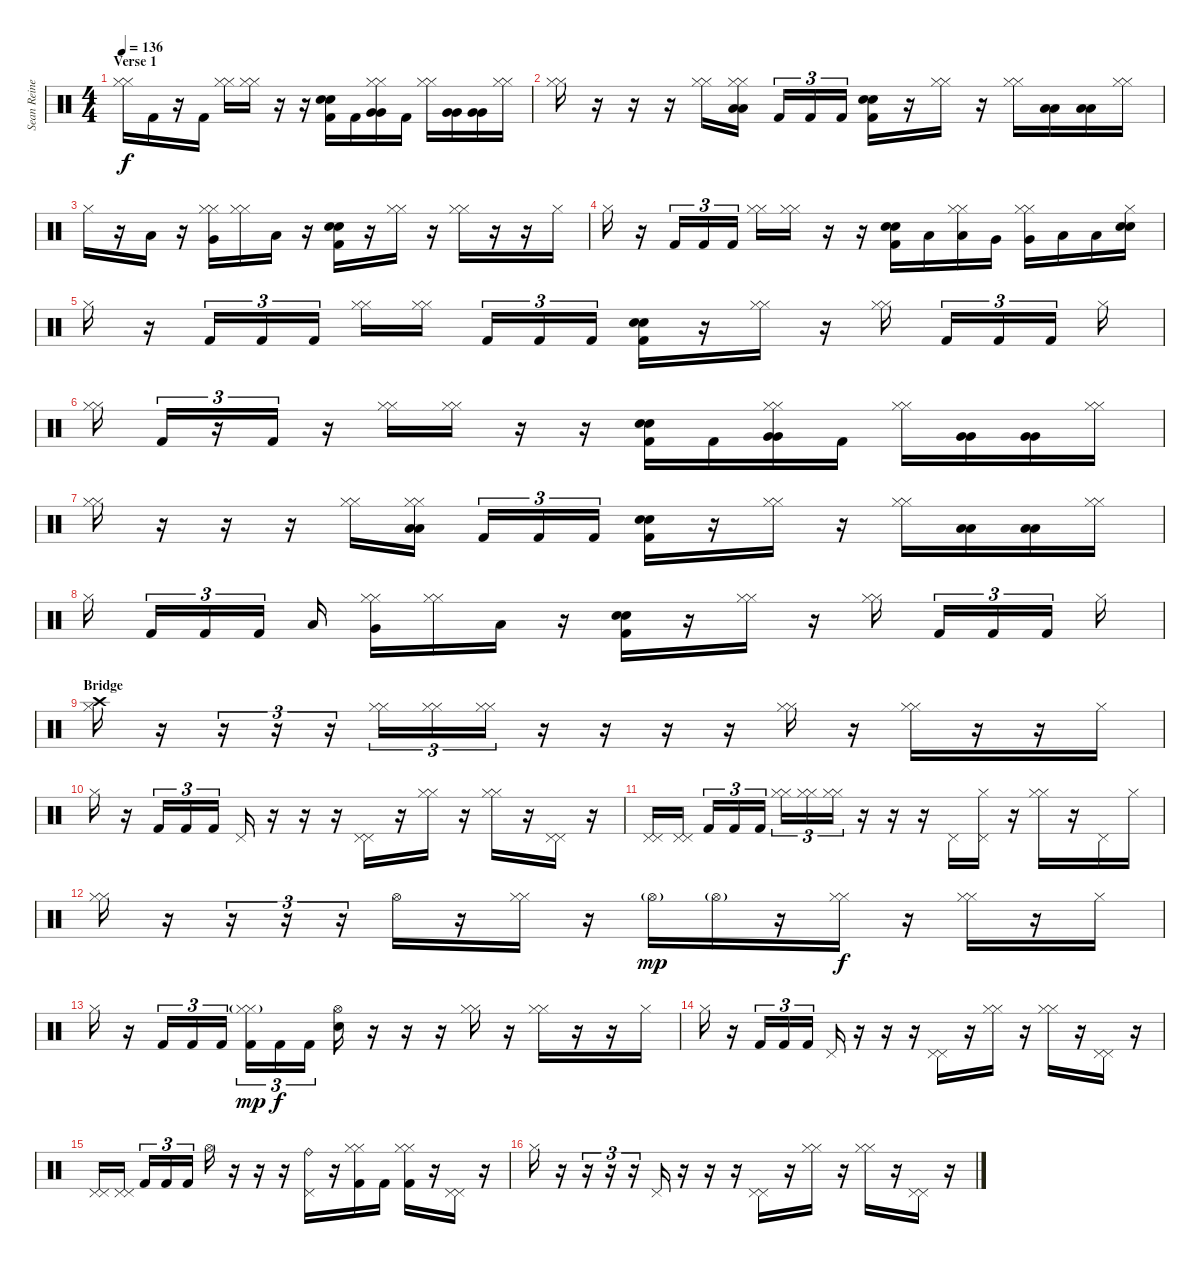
\track ("Sean Reinert" "Sean Reine") {instrument percussion}
\staff {score}
\articulation defaults
\ts (4 4)
\section ("" "Verse 1")
\tempo 136
\clef neutral
\ks c
("Hi-Hat (closed)" "Hi-Hat (closed)").16{dy f} "Kick (hit) 2".16 r.16 "Kick (hit) 2".16 ("Hi-Hat (closed)" "Hi-Hat (closed)").16 ("Hi-Hat (closed)" "Hi-Hat (closed)").16 r.16 r.16 ("Electric Snare (hit)" "Snare (hit) 2" "Kick (hit) 2").16 "Kick (hit) 2".16 ("Hi-Hat (closed)" "Hi-Hat (closed)" "Very Low Tom (hit)" "Very Low Tom (hit)").16 "Kick (hit) 2".16 ("Hi-Hat (closed)" "Hi-Hat (closed)").16 ("Very Low Tom (hit)" "Very Low Tom (hit)").16 ("Very Low Tom (hit)" "Very Low Tom (hit)").16 ("Hi-Hat (closed)" "Hi-Hat (closed)").16 |
("Hi-Hat (closed)" "Hi-Hat (closed)").16 r.16 r.16 r.16 ("Hi-Hat (closed)" "Hi-Hat (closed)").16 ("Hi-Hat (closed)" "Hi-Hat (closed)" "Low Floor Tom (hit)" "Low Floor Tom (hit)").16 "Kick (hit) 2".16{tu (3 2)} "Kick (hit) 2".16{tu (3 2)} "Kick (hit) 2".16{tu (3 2)} ("Electric Snare (hit)" "Snare (hit) 2" "Kick (hit) 2").16 r.16 ("Hi-Hat (closed)" "Hi-Hat (closed)").16 r.16 ("Hi-Hat (closed)" "Hi-Hat (closed)").16 ("Low Floor Tom (hit)" "Low Floor Tom (hit)").16 ("Low Floor Tom (hit)" "Low Floor Tom (hit)").16 ("Hi-Hat (closed)" "Hi-Hat (closed)").16 |
"Hi-Hat (closed)".16 r.16 "Low Tom (hit)".16 r.16 ("Hi-Hat (closed)" "Hi-Hat (closed)" "Very Low Tom (hit)").16 ("Hi-Hat (closed)" "Hi-Hat (closed)").16 "Low Floor Tom (hit)".16 r.16 ("Electric Snare (hit)" "Snare (hit) 2" "Kick (hit) 2").16 r.16 ("Hi-Hat (closed)" "Hi-Hat (closed)").16 r.16 ("Hi-Hat (closed)" "Hi-Hat (closed)").16 r.16 r.16 "Hi-Hat (closed)".16 |
"Hi-Hat (closed)".16 r.16 "Kick (hit) 2".16{tu (3 2)} "Kick (hit) 2".16{tu (3 2)} "Kick (hit) 2".16{tu (3 2)} ("Hi-Hat (closed)" "Hi-Hat (closed)").16 ("Hi-Hat (closed)" "Hi-Hat (closed)").16 r.16 r.16 ("Electric Snare (hit)" "Snare (hit) 2" "Kick (hit) 2").16 "Low Tom (hit)".16 ("Hi-Hat (closed)" "Hi-Hat (closed)" "Low Tom (hit)").16 "Very Low Tom (hit)".16 ("Hi-Hat (closed)" "Hi-Hat (closed)" "Very Low Tom (hit)").16 "Low Floor Tom (hit)".16 "Low Floor Tom (hit)".16 ("Hi-Hat (closed)" "Snare (hit) 2" "Electric Snare (hit)").16 |
"Hi-Hat (closed)".16 r.16 "Kick (hit) 2".16{tu (3 2)} "Kick (hit) 2".16{tu (3 2)} "Kick (hit) 2".16{tu (3 2)} ("Hi-Hat (closed)" "Hi-Hat (closed)").16 ("Hi-Hat (closed)" "Hi-Hat (closed)").16 "Kick (hit) 2".16{tu (3 2)} "Kick (hit) 2".16{tu (3 2)} "Kick (hit) 2".16{tu (3 2)} ("Electric Snare (hit)" "Snare (hit) 2" "Kick (hit) 2").16 r.16 ("Hi-Hat (closed)" "Hi-Hat (closed)").16 r.16 ("Hi-Hat (closed)" "Hi-Hat (closed)").16 "Kick (hit) 2".16{tu (3 2)} "Kick (hit) 2".16{tu (3 2)} "Kick (hit) 2".16{tu (3 2)} "Hi-Hat (closed)".16 |
("Hi-Hat (closed)" "Hi-Hat (closed)").16 "Kick (hit) 2".16{tu (3 2)} r.16{tu (3 2)} "Kick (hit) 2".16{tu (3 2)} r.16 ("Hi-Hat (closed)" "Hi-Hat (closed)").16 ("Hi-Hat (closed)" "Hi-Hat (closed)").16 r.16 r.16 ("Electric Snare (hit)" "Snare (hit) 2" "Kick (hit) 2").16 "Kick (hit) 2".16 ("Hi-Hat (closed)" "Hi-Hat (closed)" "Very Low Tom (hit)" "Very Low Tom (hit)").16 "Kick (hit) 2".16 ("Hi-Hat (closed)" "Hi-Hat (closed)").16 ("Very Low Tom (hit)" "Very Low Tom (hit)").16 ("Very Low Tom (hit)" "Very Low Tom (hit)").16 ("Hi-Hat (closed)" "Hi-Hat (closed)").16 |
("Hi-Hat (closed)" "Hi-Hat (closed)").16 r.16 r.16 r.16 ("Hi-Hat (closed)" "Hi-Hat (closed)").16 ("Hi-Hat (closed)" "Hi-Hat (closed)" "Low Floor Tom (hit)" "Low Floor Tom (hit)").16 "Kick (hit) 2".16{tu (3 2)} "Kick (hit) 2".16{tu (3 2)} "Kick (hit) 2".16{tu (3 2)} ("Electric Snare (hit)" "Snare (hit) 2" "Kick (hit) 2").16 r.16 ("Hi-Hat (closed)" "Hi-Hat (closed)").16 r.16 ("Hi-Hat (closed)" "Hi-Hat (closed)").16 ("Low Floor Tom (hit)" "Low Floor Tom (hit)").16 ("Low Floor Tom (hit)" "Low Floor Tom (hit)").16 ("Hi-Hat (closed)" "Hi-Hat (closed)").16 |
"Hi-Hat (closed)".16 "Kick (hit) 2".16{tu (3 2)} "Kick (hit) 2".16{tu (3 2)} "Kick (hit) 2".16{tu (3 2)} "Low Tom (hit)".16 ("Hi-Hat (closed)" "Hi-Hat (closed)" "Very Low Tom (hit)").16 ("Hi-Hat (closed)" "Hi-Hat (closed)").16 "Low Floor Tom (hit)".16 r.16 ("Electric Snare (hit)" "Snare (hit) 2" "Kick (hit) 2").16 r.16 ("Hi-Hat (closed)" "Hi-Hat (closed)").16 r.16 ("Hi-Hat (closed)" "Hi-Hat (closed)").16 "Kick (hit) 2".16{tu (3 2)} "Kick (hit) 2".16{tu (3 2)} "Kick (hit) 2".16{tu (3 2)} "Hi-Hat (closed)".16 |
\section ("" "Bridge")
("Crash high (hit)" "Hi-Hat (closed)").16 r.16 r.16{tu (3 2)} r.16{tu (3 2)} r.16{tu (3 2)} ("Hi-Hat (closed)" "Hi-Hat (closed)").16{tu (3 2)} ("Hi-Hat (closed)" "Hi-Hat (closed)").16{tu (3 2)} ("Hi-Hat (closed)" "Hi-Hat (closed)").16{tu (3 2)} r.16 r.16 r.16 r.16 ("Hi-Hat (closed)" "Hi-Hat (closed)").16 r.16 ("Hi-Hat (closed)" "Hi-Hat (closed)").16 r.16 r.16 "Hi-Hat (closed)".16 |
"Hi-Hat (closed)".16 r.16 "Kick (hit) 2".16{tu (3 2)} "Kick (hit) 2".16{tu (3 2)} "Kick (hit) 2".16{tu (3 2)} "Pedal Hi-Hat (hit)".16 r.16 r.16 r.16 ("Pedal Hi-Hat (hit)" "Pedal Hi-Hat (hit)").16 r.16 ("Hi-Hat (closed)" "Hi-Hat (closed)").16 r.16 ("Hi-Hat (closed)" "Hi-Hat (closed)").16 r.16 ("Pedal Hi-Hat (hit)" "Pedal Hi-Hat (hit)").16 r.16 |
("Pedal Hi-Hat (hit)" "Pedal Hi-Hat (hit)").16 ("Pedal Hi-Hat (hit)" "Pedal Hi-Hat (hit)").16 "Kick (hit) 2".16{tu (3 2)} "Kick (hit) 2".16{tu (3 2)} "Kick (hit) 2".16{tu (3 2)} ("Hi-Hat (closed)" "Hi-Hat (closed)").16{tu (3 2)} ("Hi-Hat (closed)" "Hi-Hat (closed)").16{tu (3 2)} ("Hi-Hat (closed)" "Hi-Hat (closed)").16{tu (3 2)} r.16 r.16 r.16 "Pedal Hi-Hat (hit)".16 ("Hi-Hat (closed)" "Pedal Hi-Hat (hit)").16 r.16 ("Hi-Hat (closed)" "Hi-Hat (closed)").16 r.16 "Pedal Hi-Hat (hit)".16 "Hi-Hat (closed)".16 |
("Hi-Hat (closed)" "Hi-Hat (closed)").16 r.16 r.16{tu (3 2)} r.16{tu (3 2)} r.16{tu (3 2)} "Hi-Hat (open)".16 r.16 ("Hi-Hat (closed)" "Hi-Hat (closed)").16 r.16 "Hi-Hat (open)"{g}.16{dy mp} "Hi-Hat (open)"{g}.16 r.16 ("Hi-Hat (closed)" "Hi-Hat (closed)").16{dy f} r.16 ("Hi-Hat (closed)" "Hi-Hat (closed)").16 r.16 "Hi-Hat (closed)".16 |
"Hi-Hat (closed)".16 r.16 "Kick (hit) 2".16{tu (3 2)} "Kick (hit) 2".16{tu (3 2)} "Kick (hit) 2".16{tu (3 2)} ("Hi-Hat (closed)"{g} "Hi-Hat (closed)" "Kick (hit) 2").16{tu (3 2) dy mp} "Kick (hit) 2".16{tu (3 2) dy f} "Kick (hit) 2".16{tu (3 2)} ("Hi-Hat (open)" "Snare (hit) 2").16 r.16 r.16 r.16 ("Hi-Hat (closed)" "Hi-Hat (closed)").16 r.16 ("Hi-Hat (closed)" "Hi-Hat (closed)").16 r.16 r.16 "Hi-Hat (closed)".16 |
"Hi-Hat (closed)".16 r.16 "Kick (hit) 2".16{tu (3 2)} "Kick (hit) 2".16{tu (3 2)} "Kick (hit) 2".16{tu (3 2)} "Pedal Hi-Hat (hit)".16 r.16 r.16 r.16 ("Pedal Hi-Hat (hit)" "Pedal Hi-Hat (hit)").16 r.16 ("Hi-Hat (closed)" "Hi-Hat (closed)").16 r.16 ("Hi-Hat (closed)" "Hi-Hat (closed)").16 r.16 ("Pedal Hi-Hat (hit)" "Pedal Hi-Hat (hit)").16 r.16 |
("Pedal Hi-Hat (hit)" "Pedal Hi-Hat (hit)").16 ("Pedal Hi-Hat (hit)" "Pedal Hi-Hat (hit)").16 "Kick (hit) 2".16{tu (3 2)} "Kick (hit) 2".16{tu (3 2)} "Kick (hit) 2".16{tu (3 2)} "Hi-Hat (open)".16 r.16 r.16 r.16 ("Ride (bell)" "Pedal Hi-Hat (hit)").16 r.16 ("Hi-Hat (closed)" "Hi-Hat (closed)" "Kick (hit) 2").16 "Kick (hit) 2".16 ("Hi-Hat (closed)" "Hi-Hat (closed)" "Kick (hit) 2").16 r.16 ("Pedal Hi-Hat (hit)" "Pedal Hi-Hat (hit)").16 r.16 |
"Hi-Hat (closed)".16 r.16 r.16{tu (3 2)} r.16{tu (3 2)} r.16{tu (3 2)} "Pedal Hi-Hat (hit)".16 r.16 r.16 r.16 ("Pedal Hi-Hat (hit)" "Pedal Hi-Hat (hit)").16 r.16 ("Hi-Hat (closed)" "Hi-Hat (closed)").16 r.16 ("Hi-Hat (closed)" "Hi-Hat (closed)").16 r.16 ("Pedal Hi-Hat (hit)" "Pedal Hi-Hat (hit)").16 r.16
